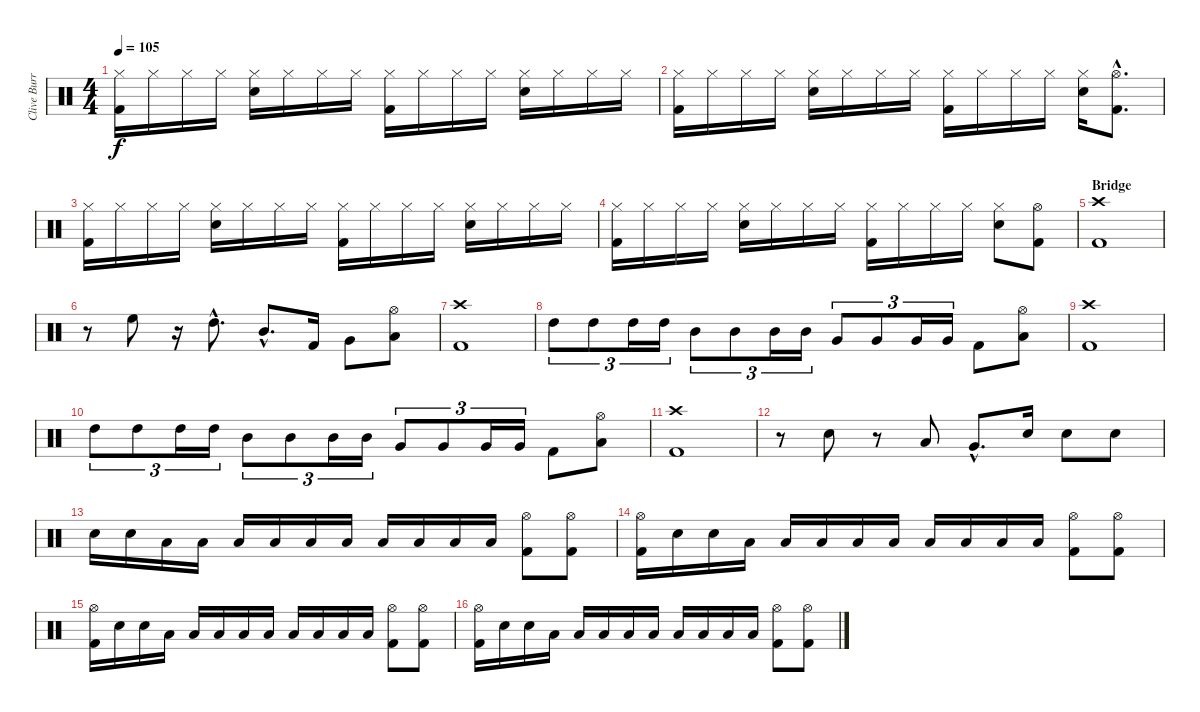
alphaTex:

\track ("Clive Burr (Drums)" "Clive Burr") {instrument percussion}
\staff {score}
\articulation defaults
\ts (4 4)
\tempo 105
\clef neutral
\ks c
("Hi-Hat (closed)" "Kick (hit) 2").16{dy f} "Hi-Hat (closed)".16 "Hi-Hat (closed)".16 "Hi-Hat (closed)".16 ("Electric Snare (hit)" "Hi-Hat (closed)").16 "Hi-Hat (closed)".16 "Hi-Hat (closed)".16 "Hi-Hat (closed)".16 ("Hi-Hat (closed)" "Kick (hit) 2").16 "Hi-Hat (closed)".16 "Hi-Hat (closed)".16 "Hi-Hat (closed)".16 ("Electric Snare (hit)" "Hi-Hat (closed)").16 "Hi-Hat (closed)".16 "Hi-Hat (closed)".16 "Hi-Hat (closed)".16 |
("Hi-Hat (closed)" "Kick (hit) 2").16 "Hi-Hat (closed)".16 "Hi-Hat (closed)".16 "Hi-Hat (closed)".16 ("Electric Snare (hit)" "Hi-Hat (closed)").16 "Hi-Hat (closed)".16 "Hi-Hat (closed)".16 "Hi-Hat (closed)".16 ("Hi-Hat (closed)" "Kick (hit) 2").16 "Hi-Hat (closed)".16 "Hi-Hat (closed)".16 "Hi-Hat (closed)".16 ("Electric Snare (hit)" "Hi-Hat (closed)").16 ("Hi-Hat (open)"{hac} "Kick (hit) 2"{hac}).8{d} |
("Hi-Hat (closed)" "Kick (hit) 2").16 "Hi-Hat (closed)".16 "Hi-Hat (closed)".16 "Hi-Hat (closed)".16 ("Electric Snare (hit)" "Hi-Hat (closed)").16 "Hi-Hat (closed)".16 "Hi-Hat (closed)".16 "Hi-Hat (closed)".16 ("Hi-Hat (closed)" "Kick (hit) 2").16 "Hi-Hat (closed)".16 "Hi-Hat (closed)".16 "Hi-Hat (closed)".16 ("Electric Snare (hit)" "Hi-Hat (closed)").16 "Hi-Hat (closed)".16 "Hi-Hat (closed)".16 "Hi-Hat (closed)".16 |
("Hi-Hat (closed)" "Kick (hit) 2").16 "Hi-Hat (closed)".16 "Hi-Hat (closed)".16 "Hi-Hat (closed)".16 ("Electric Snare (hit)" "Hi-Hat (closed)").16 "Hi-Hat (closed)".16 "Hi-Hat (closed)".16 "Hi-Hat (closed)".16 ("Hi-Hat (closed)" "Kick (hit) 2").16 "Hi-Hat (closed)".16 "Hi-Hat (closed)".16 "Hi-Hat (closed)".16 ("Electric Snare (hit)" "Hi-Hat (closed)").8 ("Hi-Hat (open)" "Kick (hit) 2").8 |
\section ("" "Bridge")
("Crash high (hit)" "Kick (hit) 2").1 |
r.8 "High Floor Tom (hit)".8 r.16 "High Tom (hit)"{hac}.8{d} "Mid Tom (hit)"{hac}.8{d} "Kick (hit) 2".16 "Very Low Tom (hit)".8 ("Hi-Hat (open)" "Low Floor Tom (hit)").8 |
("Crash high (hit)" "Kick (hit) 2").1 |
"High Tom (hit)".8{tu (3 2)} "High Tom (hit)".8{tu (3 2)} "High Tom (hit)".16{tu (3 2)} "High Tom (hit)".16{tu (3 2)} "Mid Tom (hit)".8{tu (3 2)} "Mid Tom (hit)".8{tu (3 2)} "Mid Tom (hit)".16{tu (3 2)} "Mid Tom (hit)".16{tu (3 2)} "Very Low Tom (hit)".8{tu (3 2)} "Very Low Tom (hit)".8{tu (3 2)} "Very Low Tom (hit)".16{tu (3 2)} "Very Low Tom (hit)".16{tu (3 2)} "Kick (hit) 2".8 ("Hi-Hat (open)" "Low Floor Tom (hit)").8 |
("Crash high (hit)" "Kick (hit) 2").1 |
"High Tom (hit)".8{tu (3 2)} "High Tom (hit)".8{tu (3 2)} "High Tom (hit)".16{tu (3 2)} "High Tom (hit)".16{tu (3 2)} "Mid Tom (hit)".8{tu (3 2)} "Mid Tom (hit)".8{tu (3 2)} "Mid Tom (hit)".16{tu (3 2)} "Mid Tom (hit)".16{tu (3 2)} "Very Low Tom (hit)".8{tu (3 2)} "Very Low Tom (hit)".8{tu (3 2)} "Very Low Tom (hit)".16{tu (3 2)} "Very Low Tom (hit)".16{tu (3 2)} "Kick (hit) 2".8 ("Hi-Hat (open)" "Low Floor Tom (hit)").8 |
("Crash high (hit)" "Kick (hit) 2").1 |
r.8 "Electric Snare (hit)".8 r.8 "Low Tom (hit)".8 "Very Low Tom (hit)"{hac}.8{d} "Electric Snare (hit)".16 "Electric Snare (hit)".8 "Electric Snare (hit)".8 |
\section ("" "")
"Electric Snare (hit)".16 "Electric Snare (hit)".16 "Low Tom (hit)".16 "Low Tom (hit)".16 "Low Tom (hit)".16 "Low Tom (hit)".16 "Low Tom (hit)".16 "Low Tom (hit)".16 "Low Tom (hit)".16 "Low Tom (hit)".16 "Low Tom (hit)".16 "Low Tom (hit)".16 ("Hi-Hat (open)" "Kick (hit) 2").8 ("Hi-Hat (open)" "Kick (hit) 2").8 |
("Hi-Hat (open)" "Kick (hit) 2").16 "Electric Snare (hit)".16 "Electric Snare (hit)".16 "Low Tom (hit)".16 "Low Tom (hit)".16 "Low Tom (hit)".16 "Low Tom (hit)".16 "Low Tom (hit)".16 "Low Tom (hit)".16 "Low Tom (hit)".16 "Low Tom (hit)".16 "Low Tom (hit)".16 ("Hi-Hat (open)" "Kick (hit) 2").8 ("Hi-Hat (open)" "Kick (hit) 2").8 |
("Hi-Hat (open)" "Kick (hit) 2").16 "Electric Snare (hit)".16 "Electric Snare (hit)".16 "Low Tom (hit)".16 "Low Tom (hit)".16 "Low Tom (hit)".16 "Low Tom (hit)".16 "Low Tom (hit)".16 "Low Tom (hit)".16 "Low Tom (hit)".16 "Low Tom (hit)".16 "Low Tom (hit)".16 ("Hi-Hat (open)" "Kick (hit) 2").8 ("Hi-Hat (open)" "Kick (hit) 2").8 |
("Hi-Hat (open)" "Kick (hit) 2").16 "Electric Snare (hit)".16 "Electric Snare (hit)".16 "Low Tom (hit)".16 "Low Tom (hit)".16 "Low Tom (hit)".16 "Low Tom (hit)".16 "Low Tom (hit)".16 "Low Tom (hit)".16 "Low Tom (hit)".16 "Low Tom (hit)".16 "Low Tom (hit)".16 ("Hi-Hat (open)" "Kick (hit) 2").8 ("Hi-Hat (open)" "Kick (hit) 2").8
